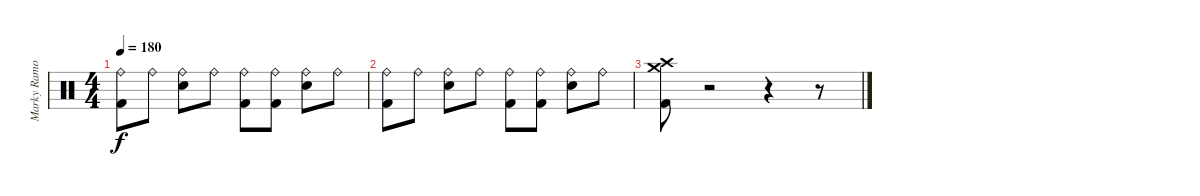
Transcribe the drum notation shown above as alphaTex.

\track ("Marky Ramone" "Marky Ramo") {instrument percussion}
\staff {score}
\articulation defaults
\ts (4 4)
\tempo 180
\clef neutral
\ks c
("Kick (hit) 2" "Ride (bell)").8{dy f} "Ride (bell)".8 ("Electric Snare (hit)" "Ride (bell)").8 "Ride (bell)".8 ("Kick (hit) 2" "Ride (bell)").8 ("Kick (hit) 2" "Ride (bell)").8 ("Electric Snare (hit)" "Ride (bell)").8 "Ride (bell)".8 |
("Ride (bell)" "Kick (hit) 2").8 "Ride (bell)".8 ("Electric Snare (hit)" "Ride (bell)").8 "Ride (bell)".8 ("Ride (bell)" "Kick (hit) 2").8 ("Ride (bell)" "Kick (hit) 2").8 ("Electric Snare (hit)" "Ride (bell)").8 "Ride (bell)".8 |
("Kick (hit) 2" "Crash medium (hit)" "Crash high (hit)").8 r.2 r.4 r.8
